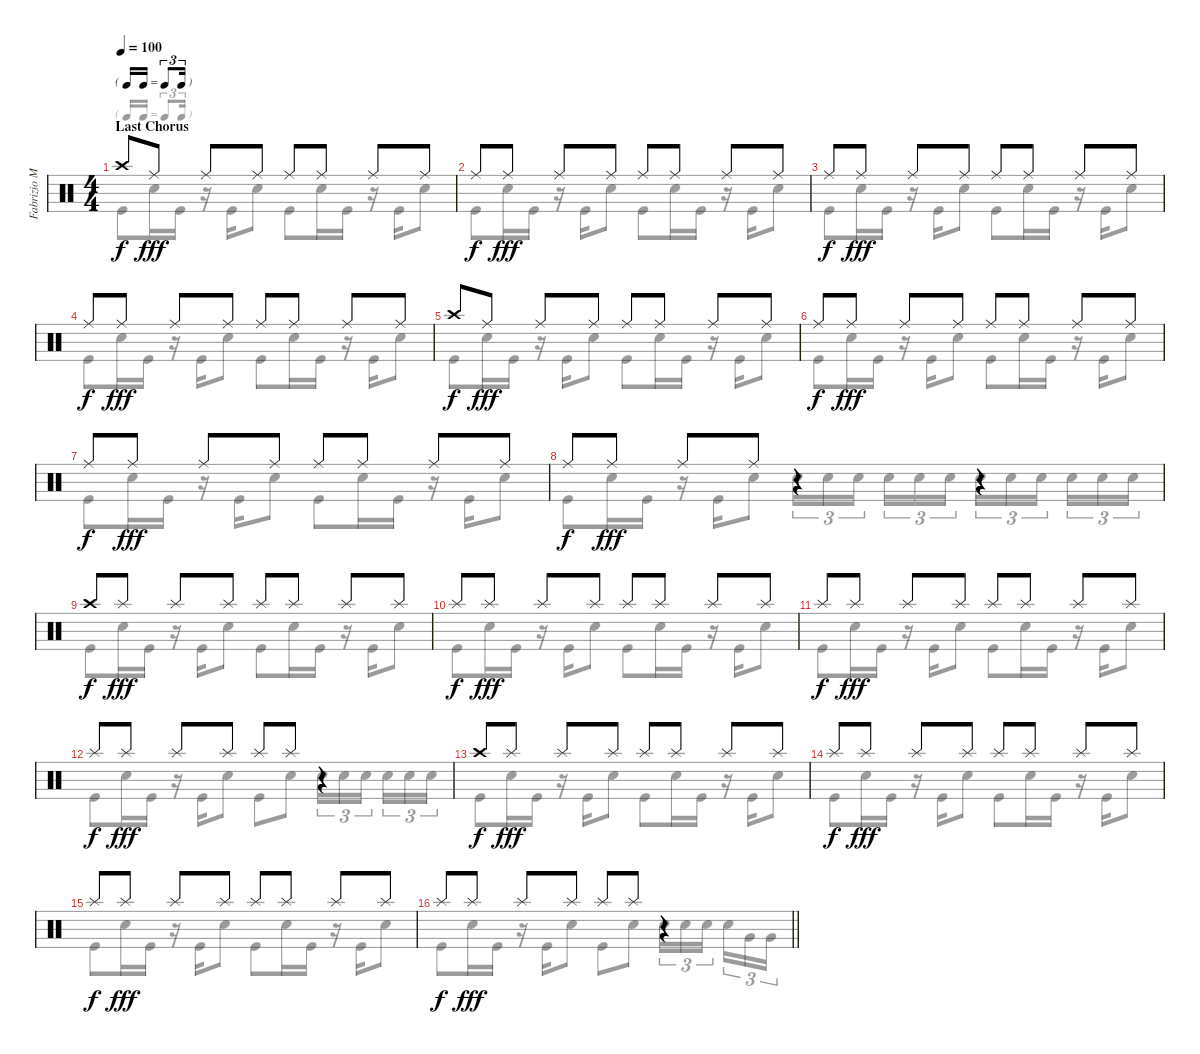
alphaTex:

\track ("Fabrizio Moretti (Drum)" "Fabrizio M") {instrument percussion}
\staff {score}
\articulation defaults
\voice
\ts (4 4)
\tf triplet16th
\section ("" "Last Chorus")
\tempo 100
\clef neutral
\ks c "Crash high (hit)".8{dy f} "Ride (middle)".8{dy fff} "Ride (middle)".8 "Ride (middle)".8 "Ride (middle)".8 "Ride (middle)".8 "Ride (middle)".8 "Ride (middle)".8
|
"Ride (middle)".8{dy f} "Ride (middle)".8{dy fff} "Ride (middle)".8 "Ride (middle)".8 "Ride (middle)".8 "Ride (middle)".8 "Ride (middle)".8 "Ride (middle)".8 |
"Ride (middle)".8{dy f} "Ride (middle)".8{dy fff} "Ride (middle)".8 "Ride (middle)".8 "Ride (middle)".8 "Ride (middle)".8 "Ride (middle)".8 "Ride (middle)".8 |
"Ride (middle)".8{dy f} "Ride (middle)".8{dy fff} "Ride (middle)".8 "Ride (middle)".8 "Ride (middle)".8 "Ride (middle)".8 "Ride (middle)".8 "Ride (middle)".8 |
"Crash high (hit)".8{dy f} "Ride (middle)".8{dy fff} "Ride (middle)".8 "Ride (middle)".8 "Ride (middle)".8 "Ride (middle)".8 "Ride (middle)".8 "Ride (middle)".8 |
"Ride (middle)".8{dy f} "Ride (middle)".8{dy fff} "Ride (middle)".8 "Ride (middle)".8 "Ride (middle)".8 "Ride (middle)".8 "Ride (middle)".8 "Ride (middle)".8 |
"Ride (middle)".8{dy f} "Ride (middle)".8{dy fff} "Ride (middle)".8 "Ride (middle)".8 "Ride (middle)".8 "Ride (middle)".8 "Ride (middle)".8 "Ride (middle)".8 |
"Ride (middle)".8{dy f} "Ride (middle)".8{dy fff} "Ride (middle)".8 "Ride (middle)".8 r.4 r.4 |
"Crash high (hit)".8{dy f} "Splash (hit)".8{dy fff} "Splash (hit)".8 "Splash (hit)".8 "Splash (hit)".8 "Splash (hit)".8 "Splash (hit)".8 "Splash (hit)".8 |
"Splash (hit)".8{dy f} "Splash (hit)".8{dy fff} "Splash (hit)".8 "Splash (hit)".8 "Splash (hit)".8 "Splash (hit)".8 "Splash (hit)".8 "Splash (hit)".8 |
"Splash (hit)".8{dy f} "Splash (hit)".8{dy fff} "Splash (hit)".8 "Splash (hit)".8 "Splash (hit)".8 "Splash (hit)".8 "Splash (hit)".8 "Splash (hit)".8 |
"Splash (hit)".8{dy f} "Splash (hit)".8{dy fff} "Splash (hit)".8 "Splash (hit)".8 "Splash (hit)".8 "Splash (hit)".8 r.4 |
"Crash high (hit)".8{dy f} "Splash (hit)".8{dy fff} "Splash (hit)".8 "Splash (hit)".8 "Splash (hit)".8 "Splash (hit)".8 "Splash (hit)".8 "Splash (hit)".8 |
"Splash (hit)".8{dy f} "Splash (hit)".8{dy fff} "Splash (hit)".8 "Splash (hit)".8 "Splash (hit)".8 "Splash (hit)".8 "Splash (hit)".8 "Splash (hit)".8 |
"Splash (hit)".8{dy f} "Splash (hit)".8{dy fff} "Splash (hit)".8 "Splash (hit)".8 "Splash (hit)".8 "Splash (hit)".8 "Splash (hit)".8 "Splash (hit)".8 |
\barLineRight lightlight "Splash (hit)".8{dy f} "Splash (hit)".8{dy fff} "Splash (hit)".8 "Splash (hit)".8 "Splash (hit)".8 "Splash (hit)".8
r.4
\voice
\clef neutral
\ottava regular
\simile none
\ks c "Kick (hit)".8{dy f} "Snare (hit) 2".16 "Kick (hit)".16
r.16 "Kick (hit)".16 "Snare (hit) 2".8 "Kick (hit)".8 "Snare (hit) 2".16 "Kick (hit)".16 r.16 "Kick (hit)".16 "Snare (hit) 2".8 |
"Kick (hit)".8 "Snare (hit) 2".16 "Kick (hit)".16 r.16 "Kick (hit)".16 "Snare (hit) 2".8 "Kick (hit)".8 "Snare (hit) 2".16 "Kick (hit)".16 r.16 "Kick (hit)".16 "Snare (hit) 2".8 |
"Kick (hit)".8 "Snare (hit) 2".16 "Kick (hit)".16 r.16 "Kick (hit)".16 "Snare (hit) 2".8 "Kick (hit)".8 "Snare (hit) 2".16 "Kick (hit)".16 r.16 "Kick (hit)".16 "Snare (hit) 2".8 |
"Kick (hit)".8 "Snare (hit) 2".16 "Kick (hit)".16 r.16 "Kick (hit)".16 "Snare (hit) 2".8 "Kick (hit)".8 "Snare (hit) 2".16 "Kick (hit)".16 r.16 "Kick (hit)".16 "Snare (hit) 2".8 |
"Kick (hit)".8 "Snare (hit) 2".16 "Kick (hit)".16 r.16 "Kick (hit)".16 "Snare (hit) 2".8 "Kick (hit)".8 "Snare (hit) 2".16 "Kick (hit)".16 r.16 "Kick (hit)".16 "Snare (hit) 2".8 |
"Kick (hit)".8 "Snare (hit) 2".16 "Kick (hit)".16 r.16 "Kick (hit)".16 "Snare (hit) 2".8 "Kick (hit)".8 "Snare (hit) 2".16 "Kick (hit)".16 r.16 "Kick (hit)".16 "Snare (hit) 2".8 |
"Kick (hit)".8 "Snare (hit) 2".16 "Kick (hit)".16 r.16 "Kick (hit)".16 "Snare (hit) 2".8 "Kick (hit)".8 "Snare (hit) 2".16 "Kick (hit)".16 r.16 "Kick (hit)".16 "Snare (hit) 2".8 |
"Kick (hit)".8 "Snare (hit) 2".16 "Kick (hit)".16 r.16 "Kick (hit)".16 "Snare (hit) 2".8 "Snare (hit) 2".16{tu (3 2)} "Snare (hit) 2".16{tu (3 2)} "Snare (hit) 2".16{tu (3 2) beam splitsecondary} "Snare (hit) 2".16{tu (3 2)} "Snare (hit) 2".16{tu (3 2)} "Snare (hit) 2".16{tu (3 2)} "Snare (hit) 2".16{tu (3 2)} "Snare (hit) 2".16{tu (3 2)} "Snare (hit) 2".16{tu (3 2) beam splitsecondary} "Snare (hit) 2".16{tu (3 2)} "Snare (hit) 2".16{tu (3 2)} "Snare (hit) 2".16{tu (3 2)} |
"Kick (hit)".8 "Snare (hit) 2".16 "Kick (hit)".16 r.16 "Kick (hit)".16 "Snare (hit) 2".8 "Kick (hit)".8 "Snare (hit) 2".16 "Kick (hit)".16 r.16 "Kick (hit)".16 "Snare (hit) 2".8 |
"Kick (hit)".8 "Snare (hit) 2".16 "Kick (hit)".16 r.16 "Kick (hit)".16 "Snare (hit) 2".8 "Kick (hit)".8 "Snare (hit) 2".16 "Kick (hit)".16 r.16 "Kick (hit)".16 "Snare (hit) 2".8 |
"Kick (hit)".8 "Snare (hit) 2".16 "Kick (hit)".16 r.16 "Kick (hit)".16 "Snare (hit) 2".8 "Kick (hit)".8 "Snare (hit) 2".16 "Kick (hit)".16 r.16 "Kick (hit)".16 "Snare (hit) 2".8 |
"Kick (hit)".8 "Snare (hit) 2".16 "Kick (hit)".16 r.16 "Kick (hit)".16 "Snare (hit) 2".8 "Kick (hit)".8 "Snare (hit) 2".8 "Snare (hit) 2".16{tu (3 2)} "Snare (hit) 2".16{tu (3 2)} "Snare (hit) 2".16{tu (3 2) beam splitsecondary} "Snare (hit) 2".16{tu (3 2)} "Snare (hit) 2".16{tu (3 2)} "Snare (hit) 2".16{tu (3 2)} |
"Kick (hit)".8 "Snare (hit) 2".16 "Kick (hit)".16 r.16 "Kick (hit)".16 "Snare (hit) 2".8 "Kick (hit)".8 "Snare (hit) 2".16 "Kick (hit)".16 r.16 "Kick (hit)".16 "Snare (hit) 2".8 |
"Kick (hit)".8 "Snare (hit) 2".16 "Kick (hit)".16 r.16 "Kick (hit)".16 "Snare (hit) 2".8 "Kick (hit)".8 "Snare (hit) 2".16 "Kick (hit)".16 r.16 "Kick (hit)".16 "Snare (hit) 2".8 |
"Kick (hit)".8 "Snare (hit) 2".16 "Kick (hit)".16 r.16 "Kick (hit)".16 "Snare (hit) 2".8 "Kick (hit)".8 "Snare (hit) 2".16 "Kick (hit)".16 r.16 "Kick (hit)".16 "Snare (hit) 2".8 |
\barLineRight lightlight "Kick (hit)".8 "Snare (hit) 2".16 "Kick (hit)".16
r.16 "Kick (hit)".16 "Snare (hit) 2".8 "Kick (hit)".8 "Snare (hit) 2".8 "Snare (hit) 2".16{tu (3 2)} "Snare (hit) 2".16{tu (3 2)} "Snare (hit) 2".16{tu (3 2) beam splitsecondary} "Snare (hit) 2".16{tu (3 2)} "Very Low Tom (hit)".16{tu (3 2)} "Very Low Tom (hit)".16{tu (3 2)}
